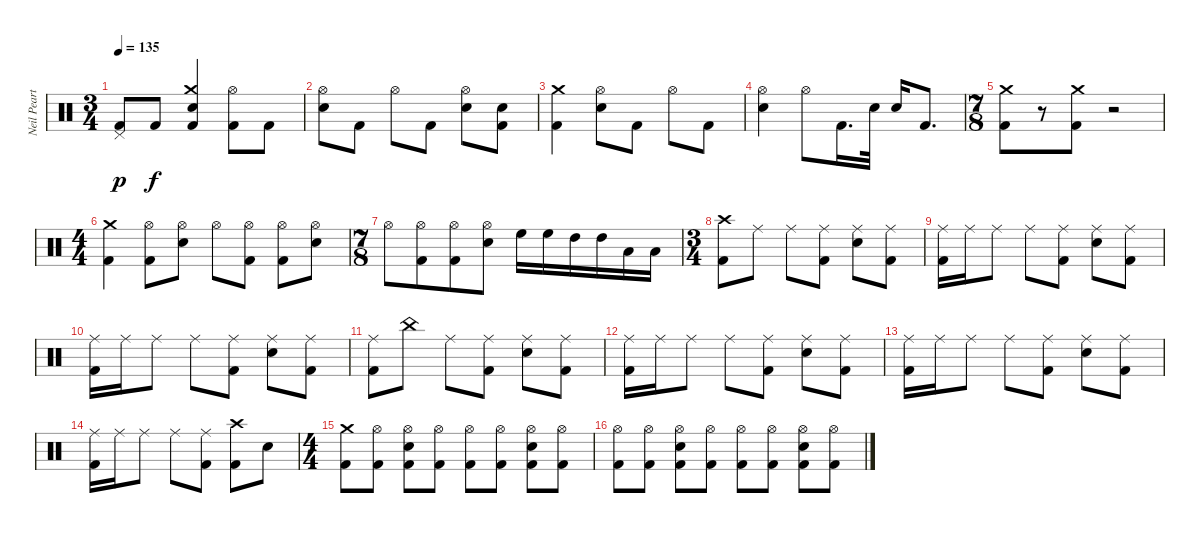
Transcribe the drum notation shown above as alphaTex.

\track ("Neil Peart" "Neil Peart") {instrument percussion}
\staff {score}
\articulation defaults
\ts (3 4)
\tempo 135
\clef neutral
\ks c
("Kick (hit) 2" "Pedal Hi-Hat (hit)").8{dy p} "Kick (hit) 2".8{dy f} ("Crash medium (hit)" "Snare (hit) 2" "Kick (hit) 2").4 ("Hi-Hat (open)" "Kick (hit) 2").8 "Kick (hit) 2".8 |
("Hi-Hat (open)" "Snare (hit) 2").8 "Kick (hit) 2".8 "Hi-Hat (open)".8 "Kick (hit) 2".8 ("Hi-Hat (open)" "Snare (hit) 2").8 ("Snare (hit) 2" "Kick (hit) 2").8 |
("Crash medium (hit)" "Kick (hit) 2").4 ("Hi-Hat (open)" "Snare (hit) 2").8 "Kick (hit) 2".8 "Hi-Hat (open)".8 "Kick (hit) 2".8 |
("Hi-Hat (open)" "Snare (hit) 2").4 "Hi-Hat (open)".8 "Kick (hit) 2".16{d} "Snare (hit) 2".32 "Snare (hit) 2".16 "Kick (hit) 2".8{d} |
\ts (7 8)
("Crash medium (hit)" "Kick (hit) 2").8 r.8{volume 0} ("Crash medium (hit)" "Kick (hit) 2").8{volume 14} r.2{volume 0} |
\ts (4 4)
("Crash medium (hit)" "Kick (hit) 2").4{volume 14} ("Hi-Hat (open)" "Kick (hit) 2").8 ("Hi-Hat (open)" "Snare (hit) 2").8 "Hi-Hat (open)".8 ("Hi-Hat (open)" "Kick (hit) 2").8 ("Hi-Hat (open)" "Kick (hit) 2").8 ("Hi-Hat (open)" "Snare (hit) 2").8 |
\ts (7 8)
"Hi-Hat (open)".8 ("Hi-Hat (open)" "Kick (hit) 2").8 ("Hi-Hat (open)" "Kick (hit) 2").8 ("Hi-Hat (open)" "Snare (hit) 2").8 "High Floor Tom (hit)".16 "High Floor Tom (hit)".16 "High Tom (hit)".16 "High Tom (hit)".16 "Low Tom (hit)".16 "Low Tom (hit)".16 |
\ts (3 4)
("Crash high (hit)" "Kick (hit) 2").8 "Ride (middle)".8 "Ride (middle)".8 ("Ride (middle)" "Kick (hit) 2").8 ("Ride (middle)" "Snare (hit) 2").8 ("Ride (middle)" "Kick (hit) 2").8 |
("Ride (middle)" "Kick (hit) 2").16 "Ride (middle)".16 "Ride (middle)".8 "Ride (middle)".8 ("Ride (middle)" "Kick (hit) 2").8 ("Ride (middle)" "Snare (hit) 2").8 ("Ride (middle)" "Kick (hit) 2").8 |
("Ride (middle)" "Kick (hit) 2").16 "Ride (middle)".16 "Ride (middle)".8 "Ride (middle)".8 ("Ride (middle)" "Kick (hit) 2").8 ("Ride (middle)" "Snare (hit) 2").8 ("Ride (middle)" "Kick (hit) 2").8 |
("Ride (middle)" "Kick (hit) 2").8 "China (hit)".8 "Ride (middle)".8 ("Ride (middle)" "Kick (hit) 2").8 ("Ride (middle)" "Snare (hit) 2").8 ("Ride (middle)" "Kick (hit) 2").8 |
("Ride (middle)" "Kick (hit) 2").16 "Ride (middle)".16 "Ride (middle)".8 "Ride (middle)".8 ("Ride (middle)" "Kick (hit) 2").8 ("Ride (middle)" "Snare (hit) 2").8 ("Ride (middle)" "Kick (hit) 2").8 |
("Ride (middle)" "Kick (hit) 2").16 "Ride (middle)".16 "Ride (middle)".8 "Ride (middle)".8 ("Ride (middle)" "Kick (hit) 2").8 ("Ride (middle)" "Snare (hit) 2").8 ("Ride (middle)" "Kick (hit) 2").8 |
("Ride (middle)" "Kick (hit) 2").16 "Ride (middle)".16 "Ride (middle)".8 "Ride (middle)".8 ("Ride (middle)" "Kick (hit) 2").8 ("Crash high (hit)" "Kick (hit) 2").8 "Snare (hit) 2".8 |
\ts (4 4)
("Crash medium (hit)" "Kick (hit) 2").8 ("Hi-Hat (open)" "Kick (hit) 2").8 ("Hi-Hat (open)" "Snare (hit) 2" "Kick (hit) 2").8 ("Hi-Hat (open)" "Kick (hit) 2").8 ("Hi-Hat (open)" "Kick (hit) 2").8 ("Hi-Hat (open)" "Kick (hit) 2").8 ("Hi-Hat (open)" "Snare (hit) 2" "Kick (hit) 2").8 ("Hi-Hat (open)" "Kick (hit) 2").8 |
("Hi-Hat (open)" "Kick (hit) 2").8 ("Hi-Hat (open)" "Kick (hit) 2").8 ("Hi-Hat (open)" "Snare (hit) 2" "Kick (hit) 2").8 ("Hi-Hat (open)" "Kick (hit) 2").8 ("Hi-Hat (open)" "Kick (hit) 2").8 ("Hi-Hat (open)" "Kick (hit) 2").8 ("Hi-Hat (open)" "Snare (hit) 2" "Kick (hit) 2").8 ("Hi-Hat (open)" "Kick (hit) 2").8
